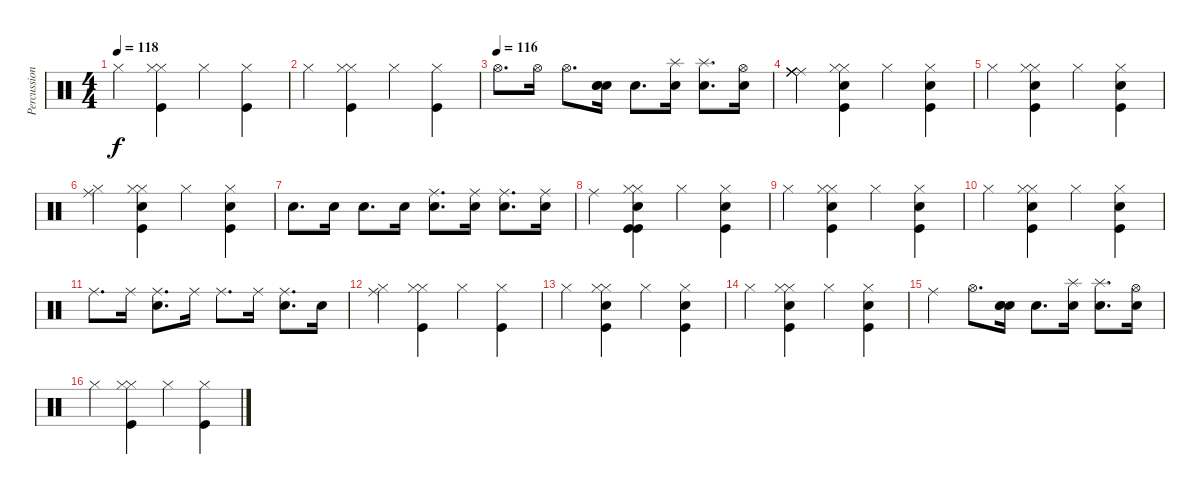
\track ("Percussion ( Densmore)" "Percussion") {instrument percussion}
\staff {score}
\articulation defaults
\ts (4 4)
\tempo 118
\clef neutral
\ks c "Hi-Hat (closed)".4{dy f}
("Hi-Hat (closed)" "Hi-Hat (closed)" "Kick (hit)").4 "Hi-Hat (closed)".4 ("Hi-Hat (closed)" "Kick (hit)").4 |
"Hi-Hat (closed)".4 ("Hi-Hat (closed)" "Hi-Hat (closed)" "Kick (hit)").4 "Hi-Hat (closed)".4 ("Hi-Hat (closed)" "Kick (hit)").4 |
\tempo (116)
"Hi-Hat (open)".8{d} "Hi-Hat (open)".16 "Hi-Hat (open)".8{d} ("Snare (hit) 2" "Snare (hit) 2" "Snare (hit) 2").16 "Snare (hit) 2".8{d} ("Splash (hit)" "Snare (hit) 2").16 ("Splash (hit)" "Snare (hit) 2").8{d} ("Hi-Hat (open)" "Snare (hit) 2").16 |
("Ride (middle)" "Ride (middle)" "Ride (middle)" "Ride (middle)" "Ride (middle)" "Ride (middle)").4 ("Hi-Hat (closed)" "Hi-Hat (closed)" "Kick (hit)" "Snare (hit) 2").4 "Hi-Hat (closed)".4 ("Hi-Hat (closed)" "Snare (hit) 2" "Kick (hit)").4 |
"Hi-Hat (closed)".4 ("Hi-Hat (closed)" "Hi-Hat (closed)" "Kick (hit)" "Snare (hit) 2").4 "Hi-Hat (closed)".4 ("Hi-Hat (closed)" "Snare (hit) 2" "Kick (hit)").4 |
("Hi-Hat (closed)" "Ride (middle)").4 ("Hi-Hat (closed)" "Hi-Hat (closed)" "Kick (hit)" "Snare (hit) 2").4 "Hi-Hat (closed)".4 ("Hi-Hat (closed)" "Snare (hit) 2" "Kick (hit)").4 |
"Snare (hit) 2".8{d} "Snare (hit) 2".16 "Snare (hit) 2".8{d} "Snare (hit) 2".16 ("Ride (middle)" "Snare (hit) 2").8{d} ("Ride (middle)" "Snare (hit) 2").16 ("Ride (middle)" "Snare (hit) 2").8{d} ("Ride (middle)" "Snare (hit) 2").16 |
"Ride (middle)".4 ("Hi-Hat (closed)" "Hi-Hat (closed)" "Kick (hit)" "Kick (hit)" "Snare (hit) 2").4 "Hi-Hat (closed)".4 ("Hi-Hat (closed)" "Snare (hit) 2" "Kick (hit)").4 |
"Hi-Hat (closed)".4 ("Hi-Hat (closed)" "Hi-Hat (closed)" "Kick (hit)" "Snare (hit) 2").4 "Hi-Hat (closed)".4 ("Hi-Hat (closed)" "Snare (hit) 2" "Kick (hit)").4 |
"Hi-Hat (closed)".4 ("Hi-Hat (closed)" "Hi-Hat (closed)" "Kick (hit)" "Snare (hit) 2").4 "Hi-Hat (closed)".4 ("Hi-Hat (closed)" "Snare (hit) 2" "Kick (hit)").4 |
"Ride (middle)".8{d} "Ride (middle)".16 ("Snare (hit) 2" "Ride (middle)").8{d} "Ride (middle)".16 "Ride (middle)".8{d} "Ride (middle)".16 ("Snare (hit) 2" "Ride (middle)").8{d} "Snare (hit) 2".16 |
("Hi-Hat (closed)" "Ride (middle)").4 ("Hi-Hat (closed)" "Hi-Hat (closed)" "Kick (hit)").4 "Hi-Hat (closed)".4 ("Hi-Hat (closed)" "Kick (hit)").4 |
"Hi-Hat (closed)".4 ("Hi-Hat (closed)" "Hi-Hat (closed)" "Kick (hit)" "Snare (hit) 2").4 "Hi-Hat (closed)".4 ("Hi-Hat (closed)" "Snare (hit) 2" "Kick (hit)").4 |
"Hi-Hat (closed)".4 ("Hi-Hat (closed)" "Hi-Hat (closed)" "Kick (hit)" "Snare (hit) 2").4 "Hi-Hat (closed)".4 ("Hi-Hat (closed)" "Snare (hit) 2" "Kick (hit)").4 |
"Ride (middle)".4 "Hi-Hat (open)".8{d} ("Snare (hit) 2" "Snare (hit) 2" "Snare (hit) 2").16 "Snare (hit) 2".8{d} ("Splash (hit)" "Snare (hit) 2").16 ("Splash (hit)" "Snare (hit) 2").8{d} ("Hi-Hat (open)" "Snare (hit) 2").16 |
"Hi-Hat (closed)".4 ("Hi-Hat (closed)" "Hi-Hat (closed)" "Kick (hit)").4 "Hi-Hat (closed)".4 ("Hi-Hat (closed)" "Kick (hit)").4
